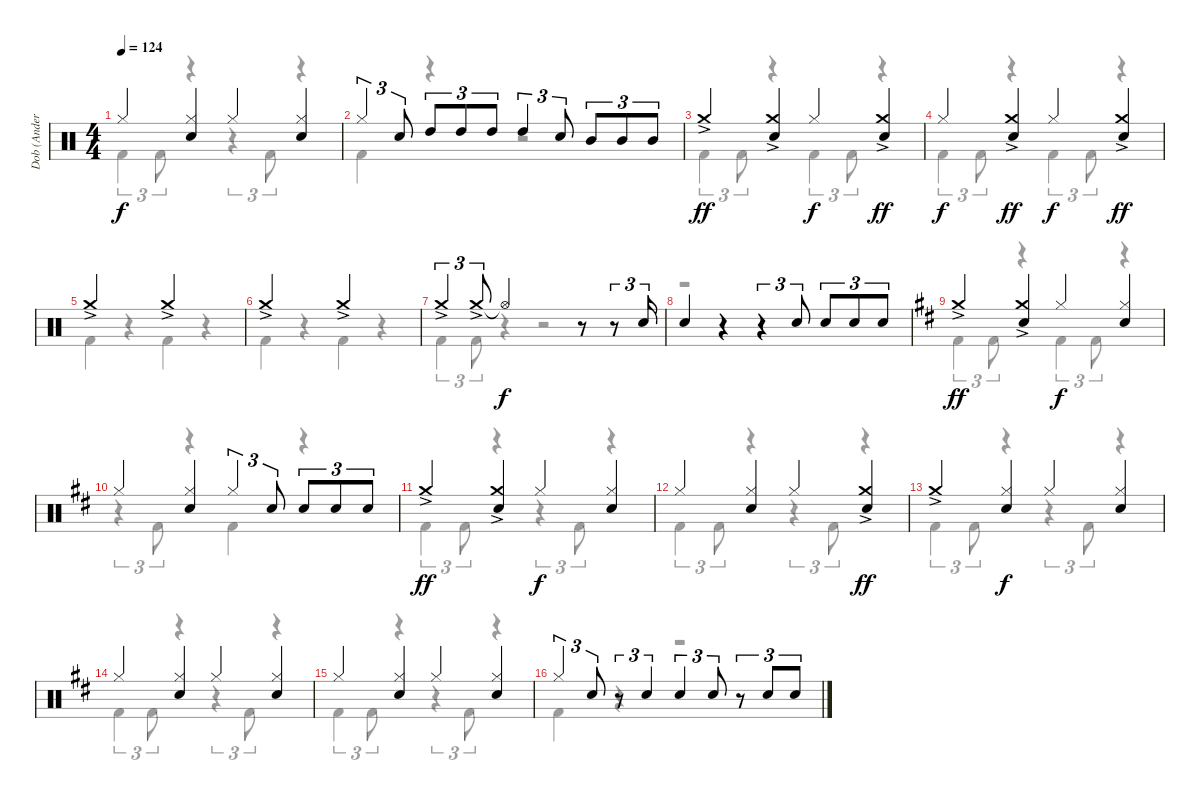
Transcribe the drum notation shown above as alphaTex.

\track ("Dob (Anders Johansson)" "Dob (Ander") {instrument percussion}
\staff {score}
\articulation defaults
\voice
\ts (4 4)
\tempo 124
\clef neutral
\ks c "Hi-Hat (closed)".4{dy f}
("Hi-Hat (closed)" "Electric Snare (hit)").4 "Hi-Hat (closed)".4 ("Hi-Hat (closed)" "Electric Snare (hit)").4 |
"Hi-Hat (closed)".4{tu (3 2)} "Electric Snare (hit)".8{tu (3 2)} "High Tom (hit)".8{tu (3 2)} "High Tom (hit)".8{tu (3 2)} "High Tom (hit)".8{tu (3 2)} "High Tom (hit)".4{tu (3 2)} "Electric Snare (hit)".8{tu (3 2)} "Mid Tom (hit)".8{tu (3 2)} "Mid Tom (hit)".8{tu (3 2)} "Mid Tom (hit)".8{tu (3 2)} |
"Crash medium (hit)"{ac}.4{dy ff} ("Crash medium (hit)"{ac} "Electric Snare (hit)").4 "Hi-Hat (closed)".4{dy f} ("Crash medium (hit)"{ac} "Electric Snare (hit)").4{dy ff} |
"Hi-Hat (closed)".4{dy f} ("Crash medium (hit)"{ac} "Electric Snare (hit)").4{dy ff} "Hi-Hat (closed)".4{dy f} ("Crash medium (hit)"{ac} "Electric Snare (hit)").4{dy ff} |
"Crash medium (hit)"{ac}.2 "Crash medium (hit)"{ac}.2 |
"Crash medium (hit)"{ac}.2 "Crash medium (hit)"{ac}.2 |
"Crash medium (hit)"{ac}.4{tu (3 2)} "Crash medium (hit)"{ac}.8{tu (3 2)} "Hi-Hat (open)"{t}.2{dy f} r.8 r.8{tu (3 2)} "Electric Snare (hit)".16{tu (3 2)} |
"Electric Snare (hit)".4 r.4 r.4{tu (3 2)} "Electric Snare (hit)".8{tu (3 2)} "Electric Snare (hit)".8{tu (3 2)} "Electric Snare (hit)".8{tu (3 2)} "Electric Snare (hit)".8{tu (3 2)} |
\ks d "Crash medium (hit)"{ac}.4{dy ff}
("Crash medium (hit)"{ac} "Electric Snare (hit)").4 "Hi-Hat (closed)".4{dy f} ("Hi-Hat (closed)" "Electric Snare (hit)").4 |
"Hi-Hat (closed)".4 ("Hi-Hat (closed)" "Electric Snare (hit)").4 "Hi-Hat (closed)".4{tu (3 2)} "Electric Snare (hit)".8{tu (3 2)} "Electric Snare (hit)".8{tu (3 2)} "Electric Snare (hit)".8{tu (3 2)} "Electric Snare (hit)".8{tu (3 2)} |
"Crash medium (hit)"{ac}.4{dy ff} ("Crash medium (hit)"{ac} "Electric Snare (hit)").4 "Hi-Hat (closed)".4{dy f} ("Hi-Hat (closed)" "Electric Snare (hit)").4 |
"Hi-Hat (closed)".4 ("Hi-Hat (closed)" "Electric Snare (hit)").4 "Hi-Hat (closed)".4 ("Crash medium (hit)"{ac} "Electric Snare (hit)").4{dy ff} |
"Crash medium (hit)"{ac}.4 ("Hi-Hat (closed)" "Electric Snare (hit)").4{dy f} "Hi-Hat (closed)".4 ("Hi-Hat (closed)" "Electric Snare (hit)").4 |
"Hi-Hat (closed)".4 ("Hi-Hat (closed)" "Electric Snare (hit)").4 "Hi-Hat (closed)".4 ("Hi-Hat (closed)" "Electric Snare (hit)").4 |
"Hi-Hat (closed)".4 ("Hi-Hat (closed)" "Electric Snare (hit)").4 "Hi-Hat (closed)".4 ("Hi-Hat (closed)" "Electric Snare (hit)").4 |
"Hi-Hat (closed)".4{tu (3 2)} "Electric Snare (hit)".8{tu (3 2)} r.8{tu (3 2)} "Electric Snare (hit)".4{tu (3 2)} "Electric Snare (hit)".4{tu (3 2)} "Electric Snare (hit)".8{tu (3 2)} r.8{tu (3 2)} "Electric Snare (hit)".8{tu (3 2)} "Electric Snare (hit)".8{tu (3 2)}
\voice
\clef neutral
\ottava regular
\simile none
\ks c "Kick (hit) 2".4{tu (3 2) dy f} "Kick (hit) 2".8{tu (3 2)}
r.4 r.4{tu (3 2)} "Kick (hit) 2".8{tu (3 2)} r.4 |
"Kick (hit) 2".4 r.4 r.2 |
"Kick (hit) 2".4{tu (3 2)} "Kick (hit) 2".8{tu (3 2)} r.4 "Kick (hit) 2".4{tu (3 2)} "Kick (hit) 2".8{tu (3 2)} r.4 |
"Kick (hit) 2".4{tu (3 2)} "Kick (hit) 2".8{tu (3 2)} r.4 "Kick (hit) 2".4{tu (3 2)} "Kick (hit) 2".8{tu (3 2)} r.4 |
"Kick (hit) 2".4 r.4 "Kick (hit) 2".4 r.4 |
"Kick (hit) 2".4 r.4 "Kick (hit) 2".4 r.4 |
"Kick (hit) 2".4{tu (3 2)} "Kick (hit) 2".8{tu (3 2)} r.4 r.2 |
r.1 |
\ks d "Kick (hit) 2".4{tu (3 2)} "Kick (hit) 2".8{tu (3 2)}
r.4 "Kick (hit) 2".4{tu (3 2)} "Kick (hit) 2".8{tu (3 2)} r.4 |
r.4{tu (3 2)} "Kick (hit) 2".8{tu (3 2)} r.4 "Kick (hit) 2".4 r.4 |
"Kick (hit) 2".4{tu (3 2)} "Kick (hit) 2".8{tu (3 2)} r.4 r.4{tu (3 2)} "Kick (hit) 2".8{tu (3 2)} r.4 |
"Kick (hit) 2".4{tu (3 2)} "Kick (hit) 2".8{tu (3 2)} r.4 r.4{tu (3 2)} "Kick (hit) 2".8{tu (3 2)} r.4 |
"Kick (hit) 2".4{tu (3 2)} "Kick (hit) 2".8{tu (3 2)} r.4 r.4{tu (3 2)} "Kick (hit) 2".8{tu (3 2)} r.4 |
"Kick (hit) 2".4{tu (3 2)} "Kick (hit) 2".8{tu (3 2)} r.4 r.4{tu (3 2)} "Kick (hit) 2".8{tu (3 2)} r.4 |
"Kick (hit) 2".4{tu (3 2)} "Kick (hit) 2".8{tu (3 2)} r.4 r.4{tu (3 2)} "Kick (hit) 2".8{tu (3 2)} r.4 |
"Kick (hit) 2".4 r.4 r.2
